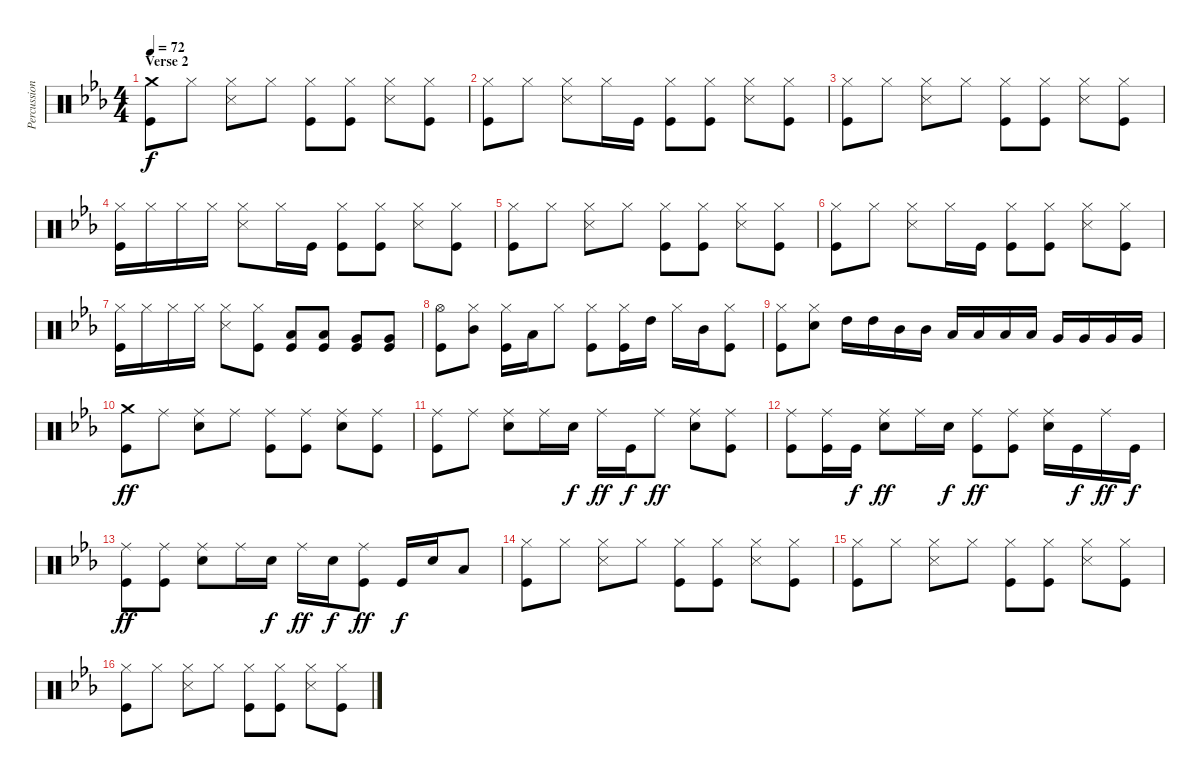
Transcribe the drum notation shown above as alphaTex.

\track ("Percussion" "Percussion") {instrument percussion}
\staff {score}
\articulation defaults
\ts (4 4)
\section ("" "Verse 2")
\tempo 72
\clef neutral
\ks eb
("Crash medium (hit)" "Kick (hit)").8{dy f} "Hi-Hat (closed)".8 ("Hi-Hat (closed)" "Snare (side stick) 3").8 "Hi-Hat (closed)".8 ("Hi-Hat (closed)" "Kick (hit)").8 ("Hi-Hat (closed)" "Kick (hit)").8 ("Hi-Hat (closed)" "Snare (side stick) 3").8 ("Hi-Hat (closed)" "Kick (hit)").8 |
("Hi-Hat (closed)" "Kick (hit)").8 "Hi-Hat (closed)".8 ("Hi-Hat (closed)" "Snare (side stick) 3").8 "Hi-Hat (closed)".16 "Kick (hit)".16 ("Hi-Hat (closed)" "Kick (hit)").8 ("Hi-Hat (closed)" "Kick (hit)").8 ("Hi-Hat (closed)" "Snare (side stick) 3").8 ("Hi-Hat (closed)" "Kick (hit)").8 |
("Hi-Hat (closed)" "Kick (hit)").8 "Hi-Hat (closed)".8 ("Hi-Hat (closed)" "Snare (side stick) 3").8 "Hi-Hat (closed)".8 ("Hi-Hat (closed)" "Kick (hit)").8 ("Hi-Hat (closed)" "Kick (hit)").8 ("Hi-Hat (closed)" "Snare (side stick) 3").8 ("Hi-Hat (closed)" "Kick (hit)").8 |
("Hi-Hat (closed)" "Kick (hit)").16 "Hi-Hat (closed)".16 "Hi-Hat (closed)".16 "Hi-Hat (closed)".16 ("Hi-Hat (closed)" "Snare (side stick) 3").8 "Hi-Hat (closed)".16 "Kick (hit)".16 ("Hi-Hat (closed)" "Kick (hit)").8 ("Hi-Hat (closed)" "Kick (hit)").8 ("Hi-Hat (closed)" "Snare (side stick) 3").8 ("Hi-Hat (closed)" "Kick (hit)").8 |
("Hi-Hat (closed)" "Kick (hit)").8 "Hi-Hat (closed)".8 ("Hi-Hat (closed)" "Snare (side stick) 3").8 "Hi-Hat (closed)".8 ("Hi-Hat (closed)" "Kick (hit)").8 ("Hi-Hat (closed)" "Kick (hit)").8 ("Hi-Hat (closed)" "Snare (side stick) 3").8 ("Hi-Hat (closed)" "Kick (hit)").8 |
("Hi-Hat (closed)" "Kick (hit)").8 "Hi-Hat (closed)".8 ("Hi-Hat (closed)" "Snare (side stick) 3").8 "Hi-Hat (closed)".16 "Kick (hit)".16 ("Hi-Hat (closed)" "Kick (hit)").8 ("Hi-Hat (closed)" "Kick (hit)").8 ("Hi-Hat (closed)" "Snare (side stick) 3").8 ("Hi-Hat (closed)" "Kick (hit)").8 |
("Hi-Hat (closed)" "Kick (hit)").16 "Hi-Hat (closed)".16 "Hi-Hat (closed)".16 "Hi-Hat (closed)".16 ("Hi-Hat (closed)" "Snare (side stick) 3").8 ("Hi-Hat (closed)" "Kick (hit)").8 ("Low Tom (hit)" "Kick (hit)").8 ("Low Tom (hit)" "Kick (hit)").8 ("Very Low Tom (hit)" "Kick (hit)").8 ("Very Low Tom (hit)" "Kick (hit)").8 |
("Hi-Hat (open)" "Kick (hit)").8 ("Hi-Hat (closed)" "Mid Tom (hit)").8 ("Hi-Hat (closed)" "Kick (hit)").16 "Low Tom (hit)".16 "Hi-Hat (closed)".8 ("Hi-Hat (closed)" "Kick (hit)").8 ("Hi-Hat (closed)" "Kick (hit)").16 "High Tom (hit)".16 "Hi-Hat (closed)".16 "Mid Tom (hit)".16 ("Hi-Hat (closed)" "Kick (hit)").8 |
("Hi-Hat (closed)" "Kick (hit)").8 ("Hi-Hat (closed)" "Snare (hit) 2").8 "High Tom (hit)".16 "High Tom (hit)".16 "Mid Tom (hit)".16 "Mid Tom (hit)".16 "Low Tom (hit)".16 "Low Tom (hit)".16 "Low Tom (hit)".16 "Low Tom (hit)".16 "Very Low Tom (hit)".16 "Very Low Tom (hit)".16 "Very Low Tom (hit)".16 "Very Low Tom (hit)".16 |
("Crash medium (hit)" "Kick (hit)").8{dy ff} "Ride (middle)".8 ("Ride (middle)" "Snare (hit) 2").8 "Ride (middle)".8 ("Ride (middle)" "Kick (hit)").8 ("Ride (middle)" "Kick (hit)").8 ("Ride (middle)" "Snare (hit) 2").8 ("Ride (middle)" "Kick (hit)").8 |
("Ride (middle)" "Kick (hit)").8 "Ride (middle)".8 ("Ride (middle)" "Snare (hit) 2").8 "Ride (middle)".16 "Snare (hit) 2".16{dy f} "Ride (middle)".16{dy ff} "Kick (hit)".16{dy f} "Ride (middle)".8{dy ff} ("Ride (middle)" "Snare (hit) 2").8 ("Ride (middle)" "Kick (hit)").8 |
("Ride (middle)" "Kick (hit)").8 ("Ride (middle)" "Kick (hit)").16 "Kick (hit)".16{dy f} ("Ride (middle)" "Snare (hit) 2").8{dy ff} "Ride (middle)".16 "Snare (hit) 2".16{dy f} ("Ride (middle)" "Kick (hit)").8{dy ff} ("Ride (middle)" "Kick (hit)").8 ("Ride (middle)" "Snare (hit) 2").16 "Kick (hit)".16{dy f} "Ride (middle)".16{dy ff} "Kick (hit)".16{dy f} |
("Ride (middle)" "Kick (hit)").8{dy ff} ("Ride (middle)" "Kick (hit)").8 ("Ride (middle)" "Snare (hit) 2").8 "Ride (middle)".16 "Snare (hit) 2".16{dy f} "Ride (middle)".16{dy ff} "Snare (hit) 2".16{dy f} ("Ride (middle)" "Kick (hit)").8{dy ff} "Kick (hit)".16{dy f} "Snare (hit) 2".16 "Low Tom (hit)".8 |
("Hi-Hat (closed)" "Kick (hit)").8 "Hi-Hat (closed)".8 ("Hi-Hat (closed)" "Snare (side stick) 3").8 "Hi-Hat (closed)".8 ("Hi-Hat (closed)" "Kick (hit)").8 ("Hi-Hat (closed)" "Kick (hit)").8 ("Hi-Hat (closed)" "Snare (side stick) 3").8 ("Hi-Hat (closed)" "Kick (hit)").8 |
("Hi-Hat (closed)" "Kick (hit)").8 "Hi-Hat (closed)".8 ("Hi-Hat (closed)" "Snare (side stick) 3").8 "Hi-Hat (closed)".8 ("Hi-Hat (closed)" "Kick (hit)").8 ("Hi-Hat (closed)" "Kick (hit)").8 ("Hi-Hat (closed)" "Snare (side stick) 3").8 ("Hi-Hat (closed)" "Kick (hit)").8 |
("Hi-Hat (closed)" "Kick (hit)").8 "Hi-Hat (closed)".8 ("Hi-Hat (closed)" "Snare (side stick) 3").8 "Hi-Hat (closed)".8 ("Hi-Hat (closed)" "Kick (hit)").8 ("Hi-Hat (closed)" "Kick (hit)").8 ("Hi-Hat (closed)" "Snare (side stick) 3").8 ("Hi-Hat (closed)" "Kick (hit)").8
